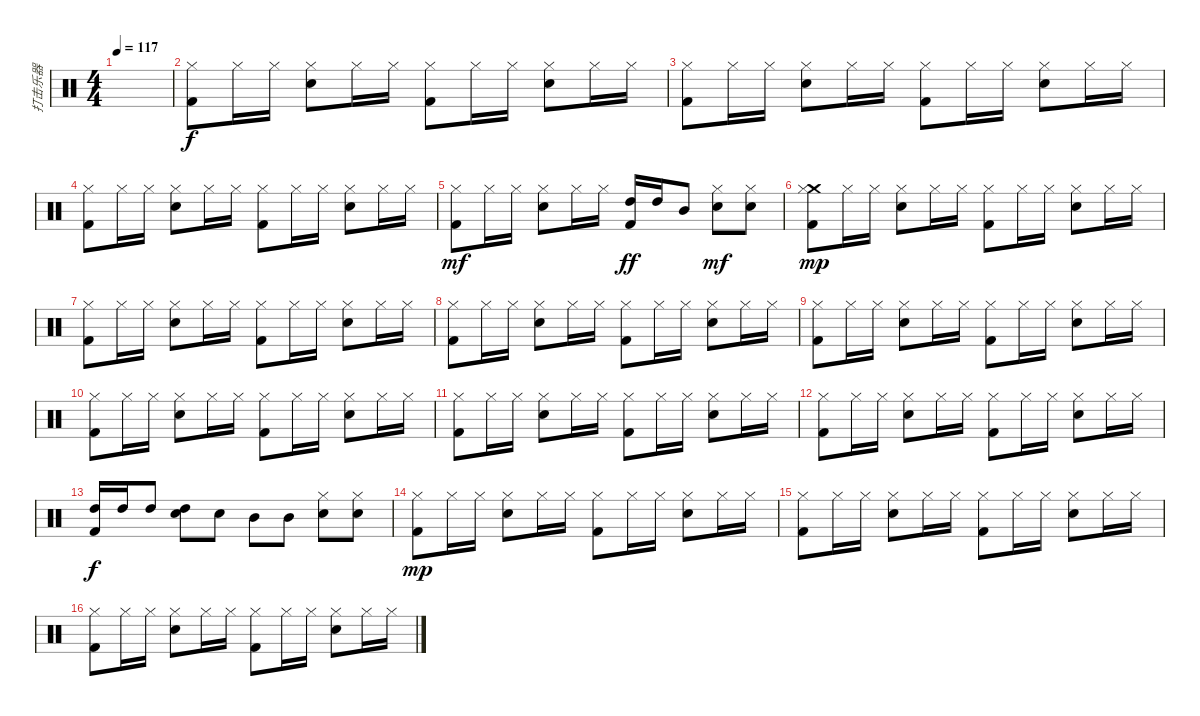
\track ("打击乐器" "打击乐器") {instrument percussion}
\staff {score}
\articulation defaults
\ts (4 4)
\tempo 117
\clef neutral
\ks c
|
("Hi-Hat (closed)" "Kick (hit) 2").8 "Hi-Hat (closed)".16 "Hi-Hat (closed)".16 ("Hi-Hat (closed)" "Snare (hit) 2").8 "Hi-Hat (closed)".16 "Hi-Hat (closed)".16 ("Hi-Hat (closed)" "Kick (hit) 2").8 "Hi-Hat (closed)".16 "Hi-Hat (closed)".16 ("Hi-Hat (closed)" "Snare (hit) 2").8 "Hi-Hat (closed)".16 "Hi-Hat (closed)".16 |
("Hi-Hat (closed)" "Kick (hit) 2").8 "Hi-Hat (closed)".16 "Hi-Hat (closed)".16 ("Hi-Hat (closed)" "Snare (hit) 2").8 "Hi-Hat (closed)".16 "Hi-Hat (closed)".16 ("Hi-Hat (closed)" "Kick (hit) 2").8 "Hi-Hat (closed)".16 "Hi-Hat (closed)".16 ("Hi-Hat (closed)" "Snare (hit) 2").8 "Hi-Hat (closed)".16 "Hi-Hat (closed)".16 |
("Hi-Hat (closed)" "Kick (hit) 2").8 "Hi-Hat (closed)".16 "Hi-Hat (closed)".16 ("Hi-Hat (closed)" "Snare (hit) 2").8 "Hi-Hat (closed)".16 "Hi-Hat (closed)".16 ("Hi-Hat (closed)" "Kick (hit) 2").8 "Hi-Hat (closed)".16 "Hi-Hat (closed)".16 ("Hi-Hat (closed)" "Snare (hit) 2").8 "Hi-Hat (closed)".16 "Hi-Hat (closed)".16 |
("Hi-Hat (closed)" "Kick (hit) 2").8{dy mf} "Hi-Hat (closed)".16 "Hi-Hat (closed)".16 ("Hi-Hat (closed)" "Snare (hit) 2").8 "Hi-Hat (closed)".16 "Hi-Hat (closed)".16 ("High Tom (hit)" "Kick (hit) 2").16{dy ff} "High Tom (hit)".16 "Mid Tom (hit)".8 ("Hi-Hat (closed)" "Snare (hit) 2").8{dy mf} ("Hi-Hat (closed)" "Snare (hit) 2").8 |
("Crash medium (hit)" "Hi-Hat (closed)" "Kick (hit) 2").8{dy mp} "Hi-Hat (closed)".16 "Hi-Hat (closed)".16 ("Hi-Hat (closed)" "Snare (hit) 2").8 "Hi-Hat (closed)".16 "Hi-Hat (closed)".16 ("Hi-Hat (closed)" "Kick (hit) 2").8 "Hi-Hat (closed)".16 "Hi-Hat (closed)".16 ("Hi-Hat (closed)" "Snare (hit) 2").8 "Hi-Hat (closed)".16 "Hi-Hat (closed)".16 |
("Hi-Hat (closed)" "Kick (hit) 2").8 "Hi-Hat (closed)".16 "Hi-Hat (closed)".16 ("Hi-Hat (closed)" "Snare (hit) 2").8 "Hi-Hat (closed)".16 "Hi-Hat (closed)".16 ("Hi-Hat (closed)" "Kick (hit) 2").8 "Hi-Hat (closed)".16 "Hi-Hat (closed)".16 ("Hi-Hat (closed)" "Snare (hit) 2").8 "Hi-Hat (closed)".16 "Hi-Hat (closed)".16 |
("Hi-Hat (closed)" "Kick (hit) 2").8 "Hi-Hat (closed)".16 "Hi-Hat (closed)".16 ("Hi-Hat (closed)" "Snare (hit) 2").8 "Hi-Hat (closed)".16 "Hi-Hat (closed)".16 ("Hi-Hat (closed)" "Kick (hit) 2").8 "Hi-Hat (closed)".16 "Hi-Hat (closed)".16 ("Hi-Hat (closed)" "Snare (hit) 2").8 "Hi-Hat (closed)".16 "Hi-Hat (closed)".16 |
("Hi-Hat (closed)" "Kick (hit) 2").8 "Hi-Hat (closed)".16 "Hi-Hat (closed)".16 ("Hi-Hat (closed)" "Snare (hit) 2").8 "Hi-Hat (closed)".16 "Hi-Hat (closed)".16 ("Hi-Hat (closed)" "Kick (hit) 2").8 "Hi-Hat (closed)".16 "Hi-Hat (closed)".16 ("Hi-Hat (closed)" "Snare (hit) 2").8 "Hi-Hat (closed)".16 "Hi-Hat (closed)".16 |
("Hi-Hat (closed)" "Kick (hit) 2").8 "Hi-Hat (closed)".16 "Hi-Hat (closed)".16 ("Hi-Hat (closed)" "Snare (hit) 2").8 "Hi-Hat (closed)".16 "Hi-Hat (closed)".16 ("Hi-Hat (closed)" "Kick (hit) 2").8 "Hi-Hat (closed)".16 "Hi-Hat (closed)".16 ("Hi-Hat (closed)" "Snare (hit) 2").8 "Hi-Hat (closed)".16 "Hi-Hat (closed)".16 |
("Hi-Hat (closed)" "Kick (hit) 2").8 "Hi-Hat (closed)".16 "Hi-Hat (closed)".16 ("Hi-Hat (closed)" "Snare (hit) 2").8 "Hi-Hat (closed)".16 "Hi-Hat (closed)".16 ("Hi-Hat (closed)" "Kick (hit) 2").8 "Hi-Hat (closed)".16 "Hi-Hat (closed)".16 ("Hi-Hat (closed)" "Snare (hit) 2").8 "Hi-Hat (closed)".16 "Hi-Hat (closed)".16 |
("Hi-Hat (closed)" "Kick (hit) 2").8 "Hi-Hat (closed)".16 "Hi-Hat (closed)".16 ("Hi-Hat (closed)" "Snare (hit) 2").8 "Hi-Hat (closed)".16 "Hi-Hat (closed)".16 ("Hi-Hat (closed)" "Kick (hit) 2").8 "Hi-Hat (closed)".16 "Hi-Hat (closed)".16 ("Hi-Hat (closed)" "Snare (hit) 2").8 "Hi-Hat (closed)".16 "Hi-Hat (closed)".16 |
("High Tom (hit)" "Kick (hit) 2").16{dy f} "High Tom (hit)".16 "High Tom (hit)".8 ("High Tom (hit)" "Snare (hit) 2").8 "Snare (hit) 2".8 "Mid Tom (hit)".8 "Mid Tom (hit)".8 ("Hi-Hat (closed)" "Snare (hit) 2").8 ("Hi-Hat (closed)" "Snare (hit) 2").8 |
("Hi-Hat (closed)" "Kick (hit) 2").8{dy mp} "Hi-Hat (closed)".16 "Hi-Hat (closed)".16 ("Hi-Hat (closed)" "Snare (hit) 2").8 "Hi-Hat (closed)".16 "Hi-Hat (closed)".16 ("Hi-Hat (closed)" "Kick (hit) 2").8 "Hi-Hat (closed)".16 "Hi-Hat (closed)".16 ("Hi-Hat (closed)" "Snare (hit) 2").8 "Hi-Hat (closed)".16 "Hi-Hat (closed)".16 |
("Hi-Hat (closed)" "Kick (hit) 2").8 "Hi-Hat (closed)".16 "Hi-Hat (closed)".16 ("Hi-Hat (closed)" "Snare (hit) 2").8 "Hi-Hat (closed)".16 "Hi-Hat (closed)".16 ("Hi-Hat (closed)" "Kick (hit) 2").8 "Hi-Hat (closed)".16 "Hi-Hat (closed)".16 ("Hi-Hat (closed)" "Snare (hit) 2").8 "Hi-Hat (closed)".16 "Hi-Hat (closed)".16 |
("Hi-Hat (closed)" "Kick (hit) 2").8 "Hi-Hat (closed)".16 "Hi-Hat (closed)".16 ("Hi-Hat (closed)" "Snare (hit) 2").8 "Hi-Hat (closed)".16 "Hi-Hat (closed)".16 ("Hi-Hat (closed)" "Kick (hit) 2").8 "Hi-Hat (closed)".16 "Hi-Hat (closed)".16 ("Hi-Hat (closed)" "Snare (hit) 2").8 "Hi-Hat (closed)".16 "Hi-Hat (closed)".16
